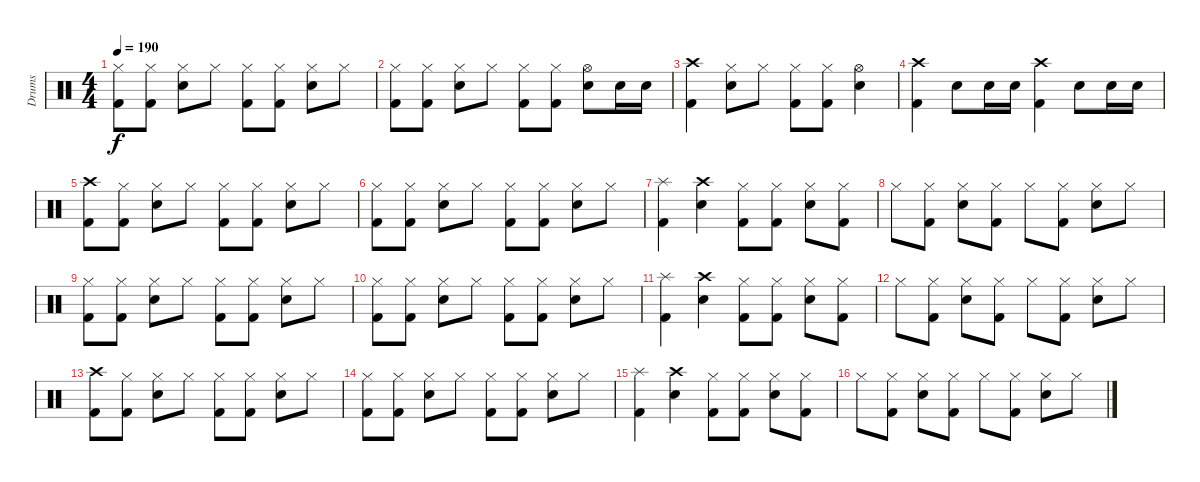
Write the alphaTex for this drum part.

\track ("Drums" "Drums") {instrument percussion}
\staff {score}
\articulation defaults
\ts (4 4)
\tempo 190
\clef neutral
\ks c
("Kick (hit) 2" "Hi-Hat (closed)").8{dy f} ("Kick (hit) 2" "Hi-Hat (closed)").8 ("Snare (hit) 2" "Hi-Hat (closed)").8 "Hi-Hat (closed)".8 ("Kick (hit) 2" "Hi-Hat (closed)").8 ("Kick (hit) 2" "Hi-Hat (closed)").8 ("Snare (hit) 2" "Hi-Hat (closed)").8 "Hi-Hat (closed)".8 |
("Kick (hit) 2" "Hi-Hat (closed)").8 ("Kick (hit) 2" "Hi-Hat (closed)").8 ("Snare (hit) 2" "Hi-Hat (closed)").8 "Hi-Hat (closed)".8 ("Kick (hit) 2" "Hi-Hat (closed)").8 ("Kick (hit) 2" "Hi-Hat (closed)").8 ("Snare (hit) 2" "Hi-Hat (open)").8 "Snare (hit) 2".16 "Snare (hit) 2".16 |
("Kick (hit) 2" "Crash high (hit)").4 ("Snare (hit) 2" "Hi-Hat (closed)").8 "Hi-Hat (closed)".8 ("Kick (hit) 2" "Hi-Hat (closed)").8 ("Kick (hit) 2" "Hi-Hat (closed)").8 ("Snare (hit) 2" "Hi-Hat (open)").4 |
("Kick (hit) 2" "Crash high (hit)").4 "Snare (hit) 2".8 "Snare (hit) 2".16 "Snare (hit) 2".16 ("Kick (hit) 2" "Crash high (hit)").4 "Snare (hit) 2".8 "Snare (hit) 2".16 "Snare (hit) 2".16 |
("Kick (hit) 2" "Crash high (hit)").8 ("Kick (hit) 2" "Hi-Hat (closed)").8 ("Snare (hit) 2" "Hi-Hat (closed)").8 "Hi-Hat (closed)".8 ("Kick (hit) 2" "Hi-Hat (closed)").8 ("Kick (hit) 2" "Hi-Hat (closed)").8 ("Snare (hit) 2" "Hi-Hat (closed)").8 "Hi-Hat (closed)".8 |
("Kick (hit) 2" "Hi-Hat (closed)").8 ("Kick (hit) 2" "Hi-Hat (closed)").8 ("Snare (hit) 2" "Hi-Hat (closed)").8 "Hi-Hat (closed)".8 ("Kick (hit) 2" "Hi-Hat (closed)").8 ("Kick (hit) 2" "Hi-Hat (closed)").8 ("Snare (hit) 2" "Hi-Hat (closed)").8 "Hi-Hat (closed)".8 |
("Kick (hit) 2" "Splash (hit)").4 ("Snare (hit) 2" "Crash high (hit)").4 ("Kick (hit) 2" "Hi-Hat (closed)").8 ("Kick (hit) 2" "Hi-Hat (closed)").8 ("Snare (hit) 2" "Hi-Hat (closed)").8 ("Kick (hit) 2" "Hi-Hat (closed)").8 |
"Hi-Hat (closed)".8 ("Kick (hit) 2" "Hi-Hat (closed)").8 ("Snare (hit) 2" "Hi-Hat (closed)").8 ("Kick (hit) 2" "Hi-Hat (closed)").8 "Hi-Hat (closed)".8 ("Kick (hit) 2" "Hi-Hat (closed)").8 ("Snare (hit) 2" "Hi-Hat (closed)").8 "Hi-Hat (closed)".8 |
("Kick (hit) 2" "Hi-Hat (closed)").8 ("Kick (hit) 2" "Hi-Hat (closed)").8 ("Snare (hit) 2" "Hi-Hat (closed)").8 "Hi-Hat (closed)".8 ("Kick (hit) 2" "Hi-Hat (closed)").8 ("Kick (hit) 2" "Hi-Hat (closed)").8 ("Snare (hit) 2" "Hi-Hat (closed)").8 "Hi-Hat (closed)".8 |
("Kick (hit) 2" "Hi-Hat (closed)").8 ("Kick (hit) 2" "Hi-Hat (closed)").8 ("Snare (hit) 2" "Hi-Hat (closed)").8 "Hi-Hat (closed)".8 ("Kick (hit) 2" "Hi-Hat (closed)").8 ("Kick (hit) 2" "Hi-Hat (closed)").8 ("Snare (hit) 2" "Hi-Hat (closed)").8 "Hi-Hat (closed)".8 |
("Kick (hit) 2" "Splash (hit)").4 ("Snare (hit) 2" "Crash high (hit)").4 ("Kick (hit) 2" "Hi-Hat (closed)").8 ("Kick (hit) 2" "Hi-Hat (closed)").8 ("Snare (hit) 2" "Hi-Hat (closed)").8 ("Kick (hit) 2" "Hi-Hat (closed)").8 |
"Hi-Hat (closed)".8 ("Kick (hit) 2" "Hi-Hat (closed)").8 ("Snare (hit) 2" "Hi-Hat (closed)").8 ("Kick (hit) 2" "Hi-Hat (closed)").8 "Hi-Hat (closed)".8 ("Kick (hit) 2" "Hi-Hat (closed)").8 ("Snare (hit) 2" "Hi-Hat (closed)").8 "Hi-Hat (closed)".8 |
("Kick (hit) 2" "Crash high (hit)").8 ("Kick (hit) 2" "Hi-Hat (closed)").8 ("Snare (hit) 2" "Hi-Hat (closed)").8 "Hi-Hat (closed)".8 ("Kick (hit) 2" "Hi-Hat (closed)").8 ("Kick (hit) 2" "Hi-Hat (closed)").8 ("Snare (hit) 2" "Hi-Hat (closed)").8 "Hi-Hat (closed)".8 |
("Kick (hit) 2" "Hi-Hat (closed)").8 ("Kick (hit) 2" "Hi-Hat (closed)").8 ("Snare (hit) 2" "Hi-Hat (closed)").8 "Hi-Hat (closed)".8 ("Kick (hit) 2" "Hi-Hat (closed)").8 ("Kick (hit) 2" "Hi-Hat (closed)").8 ("Snare (hit) 2" "Hi-Hat (closed)").8 "Hi-Hat (closed)".8 |
("Kick (hit) 2" "Splash (hit)").4 ("Snare (hit) 2" "Crash high (hit)").4 ("Kick (hit) 2" "Hi-Hat (closed)").8 ("Kick (hit) 2" "Hi-Hat (closed)").8 ("Snare (hit) 2" "Hi-Hat (closed)").8 ("Kick (hit) 2" "Hi-Hat (closed)").8 |
"Hi-Hat (closed)".8 ("Kick (hit) 2" "Hi-Hat (closed)").8 ("Snare (hit) 2" "Hi-Hat (closed)").8 ("Kick (hit) 2" "Hi-Hat (closed)").8 "Hi-Hat (closed)".8 ("Kick (hit) 2" "Hi-Hat (closed)").8 ("Snare (hit) 2" "Hi-Hat (closed)").8 "Hi-Hat (closed)".8
